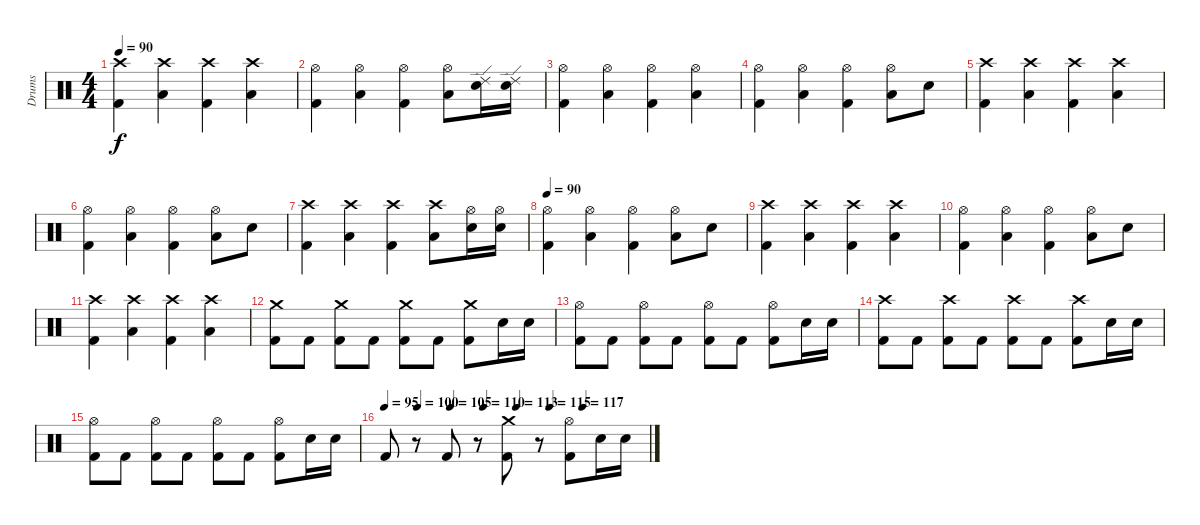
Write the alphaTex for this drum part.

\track ("Drums" "Drums") {instrument percussion}
\staff {score}
\articulation defaults
\ts (4 4)
\tempo 90
\clef neutral
\ks c
("Crash high (hit)" "Kick (hit) 2").4{dy f} ("Crash high (hit)" "Low Floor Tom (hit)").4 ("Crash high (hit)" "Kick (hit) 2").4 ("Crash high (hit)" "Low Floor Tom (hit)").4 |
("Hi-Hat (open)" "Kick (hit) 2").4 ("Hi-Hat (open)" "Low Floor Tom (hit)").4 ("Hi-Hat (open)" "Kick (hit) 2").4 ("Hi-Hat (open)" "Low Floor Tom (hit)").8 ("Ride (edge) 2" "Snare (hit) 2").16 ("Ride (edge) 2" "Snare (hit) 2").16 |
("Hi-Hat (open)" "Kick (hit) 2").4 ("Hi-Hat (open)" "Low Floor Tom (hit)").4 ("Hi-Hat (open)" "Kick (hit) 2").4 ("Hi-Hat (open)" "Low Floor Tom (hit)").4 |
("Hi-Hat (open)" "Kick (hit) 2").4 ("Hi-Hat (open)" "Low Floor Tom (hit)").4 ("Hi-Hat (open)" "Kick (hit) 2").4 ("Hi-Hat (open)" "Low Floor Tom (hit)").8 "Snare (hit) 2".8 |
("Crash high (hit)" "Kick (hit) 2").4 ("Crash high (hit)" "Low Floor Tom (hit)").4 ("Crash high (hit)" "Kick (hit) 2").4 ("Crash high (hit)" "Low Floor Tom (hit)").4 |
("Hi-Hat (open)" "Kick (hit) 2").4 ("Hi-Hat (open)" "Low Floor Tom (hit)").4 ("Hi-Hat (open)" "Kick (hit) 2").4 ("Hi-Hat (open)" "Low Floor Tom (hit)").8 "Snare (hit) 2".8 |
("Crash high (hit)" "Kick (hit) 2").4 ("Crash high (hit)" "Low Floor Tom (hit)").4 ("Crash high (hit)" "Kick (hit) 2").4 ("Crash high (hit)" "Low Floor Tom (hit)").8 ("Hi-Hat (open)" "Snare (hit) 2").16 ("Hi-Hat (open)" "Snare (hit) 2").16 |
\tempo 90
("Hi-Hat (open)" "Kick (hit) 2").4 ("Hi-Hat (open)" "Low Floor Tom (hit)").4 ("Hi-Hat (open)" "Kick (hit) 2").4 ("Hi-Hat (open)" "Low Floor Tom (hit)").8 "Snare (hit) 2".8 |
("Crash high (hit)" "Kick (hit) 2").4 ("Crash high (hit)" "Low Floor Tom (hit)").4 ("Crash high (hit)" "Kick (hit) 2").4 ("Crash high (hit)" "Low Floor Tom (hit)").4 |
("Hi-Hat (open)" "Kick (hit) 2").4 ("Hi-Hat (open)" "Low Floor Tom (hit)").4 ("Hi-Hat (open)" "Kick (hit) 2").4 ("Hi-Hat (open)" "Low Floor Tom (hit)").8 "Snare (hit) 2".8 |
("Crash high (hit)" "Kick (hit) 2").4 ("Crash high (hit)" "Low Floor Tom (hit)").4 ("Crash high (hit)" "Kick (hit) 2").4 ("Crash high (hit)" "Low Floor Tom (hit)").4 |
("Crash medium (hit)" "Kick (hit) 2").8 "Kick (hit) 2".8 ("Crash medium (hit)" "Kick (hit) 2").8 "Kick (hit) 2".8 ("Crash medium (hit)" "Kick (hit) 2").8 "Kick (hit) 2".8 ("Crash medium (hit)" "Kick (hit) 2").8 "Snare (hit) 2".16 "Snare (hit) 2".16 |
("Hi-Hat (open)" "Kick (hit) 2").8 "Kick (hit) 2".8 ("Hi-Hat (open)" "Kick (hit) 2").8 "Kick (hit) 2".8 ("Hi-Hat (open)" "Kick (hit) 2").8 "Kick (hit) 2".8 ("Hi-Hat (open)" "Kick (hit) 2").8 "Snare (hit) 2".16 "Snare (hit) 2".16 |
("Crash high (hit)" "Kick (hit) 2").8 "Kick (hit) 2".8 ("Crash high (hit)" "Kick (hit) 2").8 "Kick (hit) 2".8 ("Crash high (hit)" "Kick (hit) 2").8 "Kick (hit) 2".8 ("Crash high (hit)" "Kick (hit) 2").8 "Snare (hit) 2".16 "Snare (hit) 2".16 |
("Hi-Hat (open)" "Kick (hit) 2").8 "Kick (hit) 2".8 ("Hi-Hat (open)" "Kick (hit) 2").8 "Kick (hit) 2".8 ("Hi-Hat (open)" "Kick (hit) 2").8 "Kick (hit) 2".8 ("Hi-Hat (open)" "Kick (hit) 2").8 "Snare (hit) 2".16 "Snare (hit) 2".16 |
\tempo 95
\tempo (100 0.125)
\tempo (105 0.25)
\tempo (110 0.375)
\tempo (113 0.5)
\tempo (115 0.625)
\tempo (117 0.75)
"Kick (hit) 2".8 r.8 "Kick (hit) 2".8 r.8 ("Crash medium (hit)" "Kick (hit) 2").8 r.8 ("Hi-Hat (open)" "Kick (hit) 2").8 "Snare (hit) 2".16 "Snare (hit) 2".16
